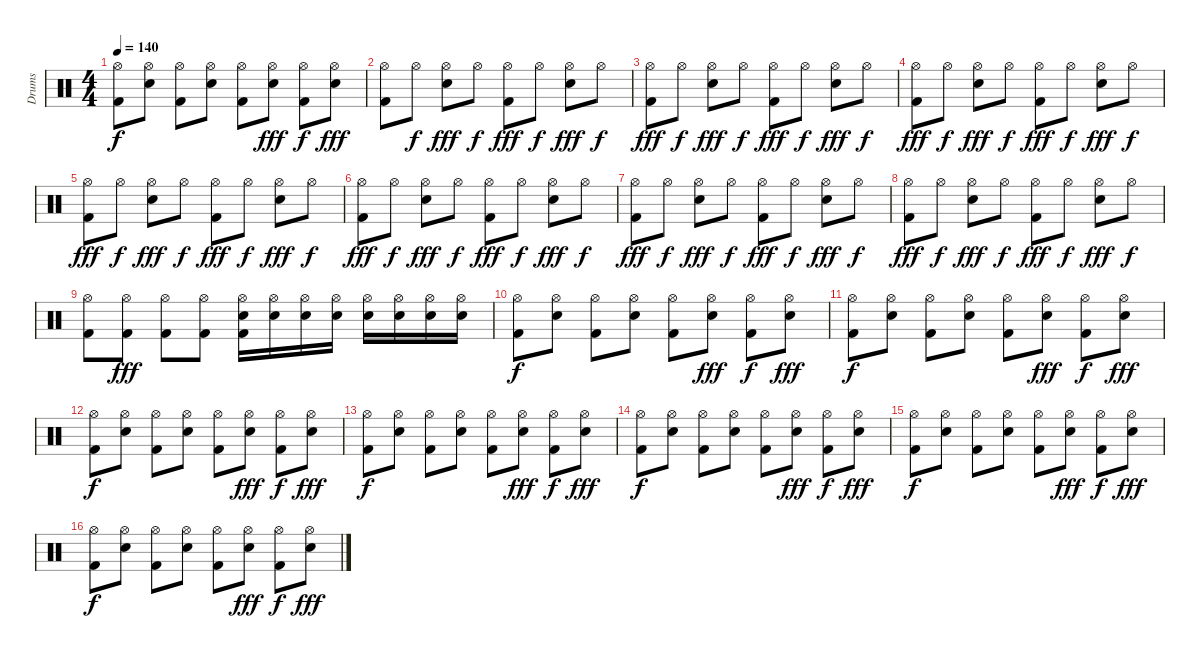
\track ("Drums" "Drums") {instrument percussion}
\staff {score}
\articulation defaults
\ts (4 4)
\tempo 140
\clef neutral
\ks c
("Hi-Hat (open)" "Kick (hit) 2").8{dy f} ("Hi-Hat (open)" "Electric Snare (hit)").8 ("Hi-Hat (open)" "Kick (hit) 2").8 ("Hi-Hat (open)" "Electric Snare (hit)").8 ("Hi-Hat (open)" "Kick (hit) 2").8 ("Hi-Hat (open)" "Electric Snare (hit)").8{dy fff} ("Hi-Hat (open)" "Kick (hit) 2").8{dy f} ("Hi-Hat (open)" "Electric Snare (hit)").8{dy fff} |
("Hi-Hat (open)" "Kick (hit) 2").8 "Hi-Hat (open)".8{dy f} ("Hi-Hat (open)" "Electric Snare (hit)").8{dy fff} "Hi-Hat (open)".8{dy f} ("Hi-Hat (open)" "Kick (hit) 2").8{dy fff} "Hi-Hat (open)".8{dy f} ("Hi-Hat (open)" "Electric Snare (hit)").8{dy fff} "Hi-Hat (open)".8{dy f} |
("Hi-Hat (open)" "Kick (hit) 2").8{dy fff} "Hi-Hat (open)".8{dy f} ("Hi-Hat (open)" "Electric Snare (hit)").8{dy fff} "Hi-Hat (open)".8{dy f} ("Hi-Hat (open)" "Kick (hit) 2").8{dy fff} "Hi-Hat (open)".8{dy f} ("Hi-Hat (open)" "Electric Snare (hit)").8{dy fff} "Hi-Hat (open)".8{dy f} |
("Hi-Hat (open)" "Kick (hit) 2").8{dy fff} "Hi-Hat (open)".8{dy f} ("Hi-Hat (open)" "Electric Snare (hit)").8{dy fff} "Hi-Hat (open)".8{dy f} ("Hi-Hat (open)" "Kick (hit) 2").8{dy fff} "Hi-Hat (open)".8{dy f} ("Hi-Hat (open)" "Electric Snare (hit)").8{dy fff} "Hi-Hat (open)".8{dy f} |
("Hi-Hat (open)" "Kick (hit) 2").8{dy fff} "Hi-Hat (open)".8{dy f} ("Hi-Hat (open)" "Electric Snare (hit)").8{dy fff} "Hi-Hat (open)".8{dy f} ("Hi-Hat (open)" "Kick (hit) 2").8{dy fff} "Hi-Hat (open)".8{dy f} ("Hi-Hat (open)" "Electric Snare (hit)").8{dy fff} "Hi-Hat (open)".8{dy f} |
("Hi-Hat (open)" "Kick (hit) 2").8{dy fff} "Hi-Hat (open)".8{dy f} ("Hi-Hat (open)" "Electric Snare (hit)").8{dy fff} "Hi-Hat (open)".8{dy f} ("Hi-Hat (open)" "Kick (hit) 2").8{dy fff} "Hi-Hat (open)".8{dy f} ("Hi-Hat (open)" "Electric Snare (hit)").8{dy fff} "Hi-Hat (open)".8{dy f} |
("Hi-Hat (open)" "Kick (hit) 2").8{dy fff} "Hi-Hat (open)".8{dy f} ("Hi-Hat (open)" "Electric Snare (hit)").8{dy fff} "Hi-Hat (open)".8{dy f} ("Hi-Hat (open)" "Kick (hit) 2").8{dy fff} "Hi-Hat (open)".8{dy f} ("Hi-Hat (open)" "Electric Snare (hit)").8{dy fff} "Hi-Hat (open)".8{dy f} |
("Hi-Hat (open)" "Kick (hit) 2").8{dy fff} "Hi-Hat (open)".8{dy f} ("Hi-Hat (open)" "Electric Snare (hit)").8{dy fff} "Hi-Hat (open)".8{dy f} ("Hi-Hat (open)" "Kick (hit) 2").8{dy fff} "Hi-Hat (open)".8{dy f} ("Hi-Hat (open)" "Electric Snare (hit)").8{dy fff} "Hi-Hat (open)".8{dy f} |
("Hi-Hat (open)" "Kick (hit) 2").8 ("Hi-Hat (open)" "Kick (hit) 2").8{dy fff} ("Hi-Hat (open)" "Kick (hit) 2").8 ("Hi-Hat (open)" "Kick (hit) 2").8 ("Hi-Hat (open)" "Electric Snare (hit)" "Kick (hit) 2").16 ("Hi-Hat (open)" "Electric Snare (hit)").16 ("Hi-Hat (open)" "Electric Snare (hit)").16 ("Hi-Hat (open)" "Electric Snare (hit)").16 ("Hi-Hat (open)" "Electric Snare (hit)").16 ("Hi-Hat (open)" "Electric Snare (hit)").16 ("Hi-Hat (open)" "Electric Snare (hit)").16 ("Hi-Hat (open)" "Electric Snare (hit)").16 |
("Hi-Hat (open)" "Kick (hit) 2").8{dy f} ("Hi-Hat (open)" "Electric Snare (hit)").8 ("Hi-Hat (open)" "Kick (hit) 2").8 ("Hi-Hat (open)" "Electric Snare (hit)").8 ("Hi-Hat (open)" "Kick (hit) 2").8 ("Hi-Hat (open)" "Electric Snare (hit)").8{dy fff} ("Hi-Hat (open)" "Kick (hit) 2").8{dy f} ("Hi-Hat (open)" "Electric Snare (hit)").8{dy fff} |
("Hi-Hat (open)" "Kick (hit) 2").8{dy f} ("Hi-Hat (open)" "Electric Snare (hit)").8 ("Hi-Hat (open)" "Kick (hit) 2").8 ("Hi-Hat (open)" "Electric Snare (hit)").8 ("Hi-Hat (open)" "Kick (hit) 2").8 ("Hi-Hat (open)" "Electric Snare (hit)").8{dy fff} ("Hi-Hat (open)" "Kick (hit) 2").8{dy f} ("Hi-Hat (open)" "Electric Snare (hit)").8{dy fff} |
("Hi-Hat (open)" "Kick (hit) 2").8{dy f} ("Hi-Hat (open)" "Electric Snare (hit)").8 ("Hi-Hat (open)" "Kick (hit) 2").8 ("Hi-Hat (open)" "Electric Snare (hit)").8 ("Hi-Hat (open)" "Kick (hit) 2").8 ("Hi-Hat (open)" "Electric Snare (hit)").8{dy fff} ("Hi-Hat (open)" "Kick (hit) 2").8{dy f} ("Hi-Hat (open)" "Electric Snare (hit)").8{dy fff} |
("Hi-Hat (open)" "Kick (hit) 2").8{dy f} ("Hi-Hat (open)" "Electric Snare (hit)").8 ("Hi-Hat (open)" "Kick (hit) 2").8 ("Hi-Hat (open)" "Electric Snare (hit)").8 ("Hi-Hat (open)" "Kick (hit) 2").8 ("Hi-Hat (open)" "Electric Snare (hit)").8{dy fff} ("Hi-Hat (open)" "Kick (hit) 2").8{dy f} ("Hi-Hat (open)" "Electric Snare (hit)").8{dy fff} |
("Hi-Hat (open)" "Kick (hit) 2").8{dy f} ("Hi-Hat (open)" "Electric Snare (hit)").8 ("Hi-Hat (open)" "Kick (hit) 2").8 ("Hi-Hat (open)" "Electric Snare (hit)").8 ("Hi-Hat (open)" "Kick (hit) 2").8 ("Hi-Hat (open)" "Electric Snare (hit)").8{dy fff} ("Hi-Hat (open)" "Kick (hit) 2").8{dy f} ("Hi-Hat (open)" "Electric Snare (hit)").8{dy fff} |
("Hi-Hat (open)" "Kick (hit) 2").8{dy f} ("Hi-Hat (open)" "Electric Snare (hit)").8 ("Hi-Hat (open)" "Kick (hit) 2").8 ("Hi-Hat (open)" "Electric Snare (hit)").8 ("Hi-Hat (open)" "Kick (hit) 2").8 ("Hi-Hat (open)" "Electric Snare (hit)").8{dy fff} ("Hi-Hat (open)" "Kick (hit) 2").8{dy f} ("Hi-Hat (open)" "Electric Snare (hit)").8{dy fff} |
("Hi-Hat (open)" "Kick (hit) 2").8{dy f} ("Hi-Hat (open)" "Electric Snare (hit)").8 ("Hi-Hat (open)" "Kick (hit) 2").8 ("Hi-Hat (open)" "Electric Snare (hit)").8 ("Hi-Hat (open)" "Kick (hit) 2").8 ("Hi-Hat (open)" "Electric Snare (hit)").8{dy fff} ("Hi-Hat (open)" "Kick (hit) 2").8{dy f} ("Hi-Hat (open)" "Electric Snare (hit)").8{dy fff}
